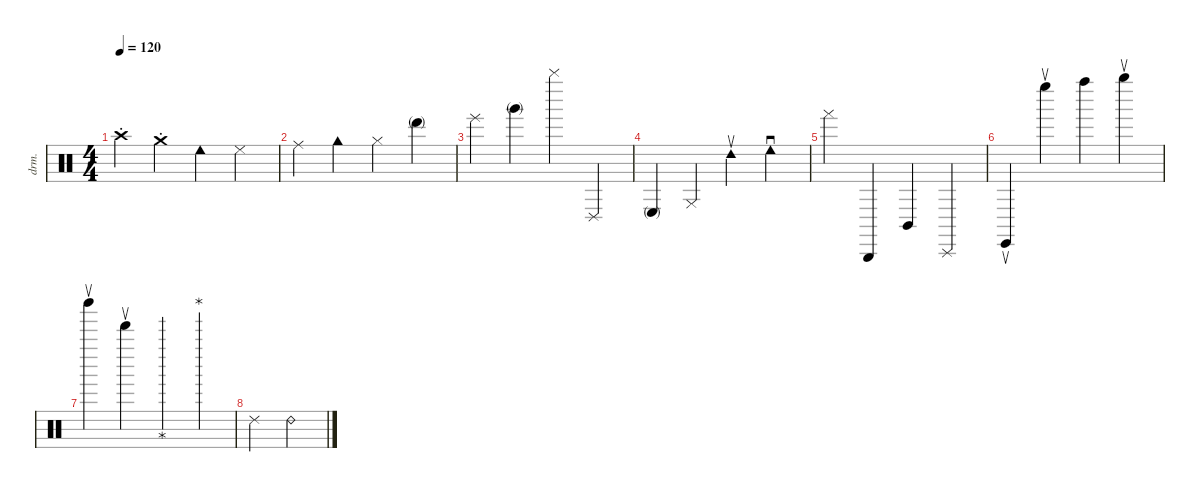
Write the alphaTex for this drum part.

\defaultSystemsLayout 4
\hideDynamics
\bracketExtendMode nobrackets
\track ("Drumkit" "drm.") {instrument percussion}
\staff {score}
\articulation defaults
\ts (4 4)
\tempo 120
\clef neutral
\ks c "Crash high (choke)".4{dy mf beam Down} "Crash medium (choke)".4{beam Down} "Cowbell low (hit)".4{beam Down} "Cowbell low (tip)".4{beam Down}
|
"Cowbell medium (tip)".4{beam Down} "Cowbell high (hit)".4{beam Down} "Cowbell high (tip)".4{beam Down} "Hand (mute)".4{beam Down} |
"Hand (slap)".4{beam Down} "Hand (mute) 2".4{beam Down} "Hand (slap) 2".4{beam Down} "Conga low (slap)".4{beam Up} |
"Conga low (mute)".4{beam Up} "Conga high (slap)".4{beam Up} "Tambourine (return)".4{beam Down} "Tambourine (roll)".4{beam Down} |
"Tambourine (hand)".4{beam Down} "Grancassa (hit)".4{beam Up} "Piatti (hat)".4{beam Up} "Piatti (hand)".4{beam Up} |
"Cabasa (return)".4{beam Up} "Left Maraca (return)".4{beam Down} "Right Maraca (hit)".4{beam Down} "Right Maraca (return)".4{beam Down} |
"Shaker (return)".4{beam Down} "Bell Tee (return)".4{beam Down} "Golpe (thumb)".4{beam Down} "Golpe (finger)".4{beam Down} |
"Ride (middle) 2".4{beam Down} "Ride (bell) 2".4{beam Down}
